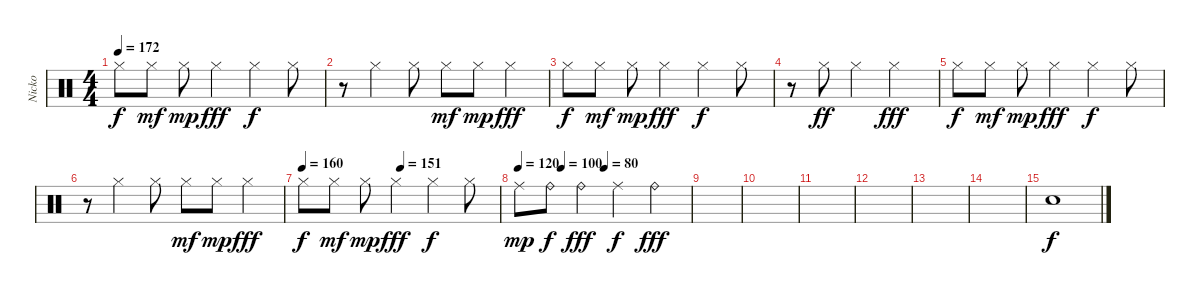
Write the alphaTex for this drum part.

\track ("Nicko" "Nicko") {instrument percussion}
\staff {score}
\articulation defaults
\ts (4 4)
\tempo 172
\clef neutral
\ks c "Hi-Hat (closed)".8{dy f} "Hi-Hat (closed)".8{dy mf} "Hi-Hat (closed)".8{dy mp} "Hi-Hat (closed)".4{dy fff} "Hi-Hat (closed)".4{dy f} "Hi-Hat (closed)".8
|
r.8 "Hi-Hat (closed)".4 "Hi-Hat (closed)".8 "Hi-Hat (closed)".8{dy mf} "Hi-Hat (closed)".8{dy mp} "Hi-Hat (closed)".4{dy fff} |
"Hi-Hat (closed)".8{dy f} "Hi-Hat (closed)".8{dy mf} "Hi-Hat (closed)".8{dy mp} "Hi-Hat (closed)".4{dy fff} "Hi-Hat (closed)".4{dy f} "Hi-Hat (closed)".8 |
r.8 "Hi-Hat (closed)".8{dy ff} "Hi-Hat (closed)".4 "Hi-Hat (closed)".2{dy fff} |
"Hi-Hat (closed)".8{dy f} "Hi-Hat (closed)".8{dy mf} "Hi-Hat (closed)".8{dy mp} "Hi-Hat (closed)".4{dy fff} "Hi-Hat (closed)".4{dy f} "Hi-Hat (closed)".8 |
r.8 "Hi-Hat (closed)".4 "Hi-Hat (closed)".8 "Hi-Hat (closed)".8{dy mf} "Hi-Hat (closed)".8{dy mp} "Hi-Hat (closed)".4{dy fff} |
\tempo 160
\tempo (151 0.5)
"Hi-Hat (closed)".8{dy f} "Hi-Hat (closed)".8{dy mf} "Hi-Hat (closed)".8{dy mp} "Hi-Hat (closed)".4{dy fff} "Hi-Hat (closed)".4{dy f} "Hi-Hat (closed)".8 |
\tempo 120
\tempo (100 0.25)
\tempo (80 0.5)
"Ride (middle)".8{dy mp} "Ride (bell)".8{dy f} "Ride (bell)".4{dy fff} "Ride (middle)".4{dy f} "Ride (bell)".4{dy fff} |
|
|
|
|
|
|
"Snare (hit)".1{dy f}
